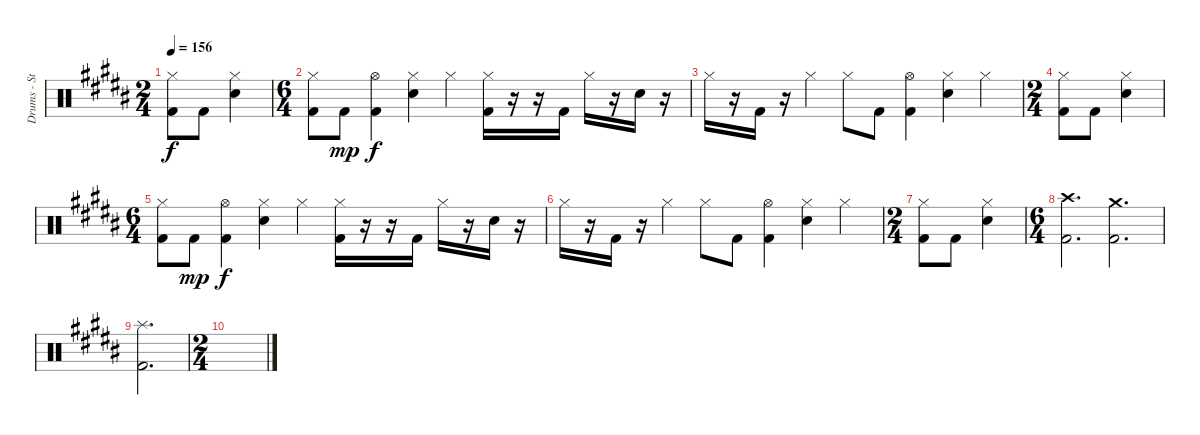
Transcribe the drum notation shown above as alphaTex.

\track ("Drums - Steve Judd" "Drums - St") {instrument percussion}
\staff {score}
\articulation defaults
\ts (2 4)
\tempo 156
\clef neutral
\ks b
("Hi-Hat (closed)" "Kick (hit) 2").8{dy f} "Kick (hit) 2".8 ("Electric Snare (hit)" "Hi-Hat (closed)").4 |
\ts (6 4)
("Hi-Hat (closed)" "Kick (hit) 2").8 "Kick (hit) 2".8{dy mp} ("Hi-Hat (open)" "Kick (hit) 2").4{dy f} ("Electric Snare (hit)" "Hi-Hat (closed)").4 "Hi-Hat (closed)".4 ("Hi-Hat (closed)" "Kick (hit) 2").16 r.16 r.16 "Kick (hit) 2".16 "Hi-Hat (closed)".16 r.16 "Electric Snare (hit)".16 r.16 |
"Hi-Hat (closed)".16 r.16 "Kick (hit) 2".16 r.16 "Hi-Hat (closed)".4 "Hi-Hat (closed)".8 "Kick (hit) 2".8 ("Hi-Hat (open)" "Kick (hit) 2").4 ("Electric Snare (hit)" "Hi-Hat (closed)").4 "Hi-Hat (closed)".4 |
\ts (2 4)
("Hi-Hat (closed)" "Kick (hit) 2").8 "Kick (hit) 2".8 ("Electric Snare (hit)" "Hi-Hat (closed)").4 |
\ts (6 4)
("Hi-Hat (closed)" "Kick (hit) 2").8 "Kick (hit) 2".8{dy mp} ("Hi-Hat (open)" "Kick (hit) 2").4{dy f} ("Electric Snare (hit)" "Hi-Hat (closed)").4 "Hi-Hat (closed)".4 ("Hi-Hat (closed)" "Kick (hit) 2").16 r.16 r.16 "Kick (hit) 2".16 "Hi-Hat (closed)".16 r.16 "Electric Snare (hit)".16 r.16 |
"Hi-Hat (closed)".16 r.16 "Kick (hit) 2".16 r.16 "Hi-Hat (closed)".4 "Hi-Hat (closed)".8 "Kick (hit) 2".8 ("Hi-Hat (open)" "Kick (hit) 2").4 ("Electric Snare (hit)" "Hi-Hat (closed)").4 "Hi-Hat (closed)".4 |
\ts (2 4)
("Hi-Hat (closed)" "Kick (hit) 2").8 "Kick (hit) 2".8 ("Electric Snare (hit)" "Hi-Hat (closed)").4 |
\ts (6 4)
("Crash high (hit)" "Kick (hit) 2").2{d} ("Crash medium (hit)" "Kick (hit) 2").2{d} |
("Splash (hit)" "Kick (hit) 2").2{d} |
\ts (2 4)
